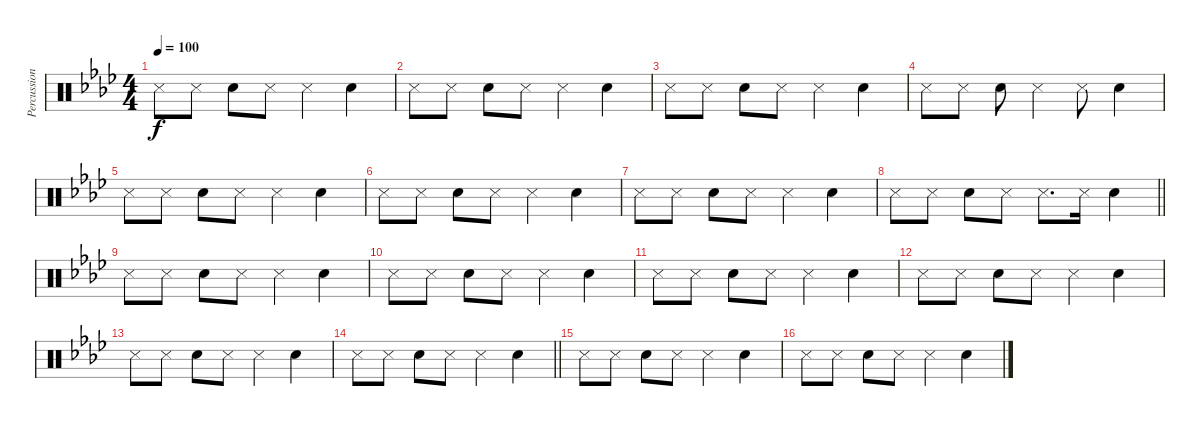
\track ("Percussions" "Percussion") {instrument percussion}
\staff {score}
\articulation defaults
\ts (4 4)
\tempo 100
\clef neutral
\ks ab "Snare (side stick) 3".8{dy f} "Snare (side stick) 3".8 "Hand Clap (hit)".8 "Snare (side stick) 3".8 "Snare (side stick) 3".4 "Hand Clap (hit)".4
|
"Snare (side stick) 3".8 "Snare (side stick) 3".8 "Hand Clap (hit)".8 "Snare (side stick) 3".8 "Snare (side stick) 3".4 "Hand Clap (hit)".4 |
"Snare (side stick) 3".8 "Snare (side stick) 3".8 "Hand Clap (hit)".8 "Snare (side stick) 3".8 "Snare (side stick) 3".4 "Hand Clap (hit)".4 |
"Snare (side stick) 3".8 "Snare (side stick) 3".8 "Hand Clap (hit)".8 "Snare (side stick) 3".4 "Snare (side stick) 3".8 "Hand Clap (hit)".4 |
"Snare (side stick) 3".8 "Snare (side stick) 3".8 "Hand Clap (hit)".8 "Snare (side stick) 3".8 "Snare (side stick) 3".4 "Hand Clap (hit)".4 |
"Snare (side stick) 3".8 "Snare (side stick) 3".8 "Hand Clap (hit)".8 "Snare (side stick) 3".8 "Snare (side stick) 3".4 "Hand Clap (hit)".4 |
"Snare (side stick) 3".8 "Snare (side stick) 3".8 "Hand Clap (hit)".8 "Snare (side stick) 3".8 "Snare (side stick) 3".4 "Hand Clap (hit)".4 |
\barLineRight lightlight "Snare (side stick) 3".8 "Snare (side stick) 3".8 "Hand Clap (hit)".8 "Snare (side stick) 3".8 "Snare (side stick) 3".8{d} "Snare (side stick) 3".16 "Hand Clap (hit)".4
|
"Snare (side stick) 3".8 "Snare (side stick) 3".8 "Hand Clap (hit)".8 "Snare (side stick) 3".8 "Snare (side stick) 3".4 "Hand Clap (hit)".4 |
"Snare (side stick) 3".8 "Snare (side stick) 3".8 "Hand Clap (hit)".8 "Snare (side stick) 3".8 "Snare (side stick) 3".4 "Hand Clap (hit)".4 |
"Snare (side stick) 3".8 "Snare (side stick) 3".8 "Hand Clap (hit)".8 "Snare (side stick) 3".8 "Snare (side stick) 3".4 "Hand Clap (hit)".4 |
"Snare (side stick) 3".8 "Snare (side stick) 3".8 "Hand Clap (hit)".8 "Snare (side stick) 3".8 "Snare (side stick) 3".4 "Hand Clap (hit)".4 |
"Snare (side stick) 3".8 "Snare (side stick) 3".8 "Hand Clap (hit)".8 "Snare (side stick) 3".8 "Snare (side stick) 3".4 "Hand Clap (hit)".4 |
\barLineRight lightlight "Snare (side stick) 3".8 "Snare (side stick) 3".8 "Hand Clap (hit)".8 "Snare (side stick) 3".8 "Snare (side stick) 3".4 "Hand Clap (hit)".4
|
"Snare (side stick) 3".8 "Snare (side stick) 3".8 "Hand Clap (hit)".8 "Snare (side stick) 3".8 "Snare (side stick) 3".4 "Hand Clap (hit)".4 |
"Snare (side stick) 3".8 "Snare (side stick) 3".8 "Hand Clap (hit)".8 "Snare (side stick) 3".8 "Snare (side stick) 3".4 "Hand Clap (hit)".4
